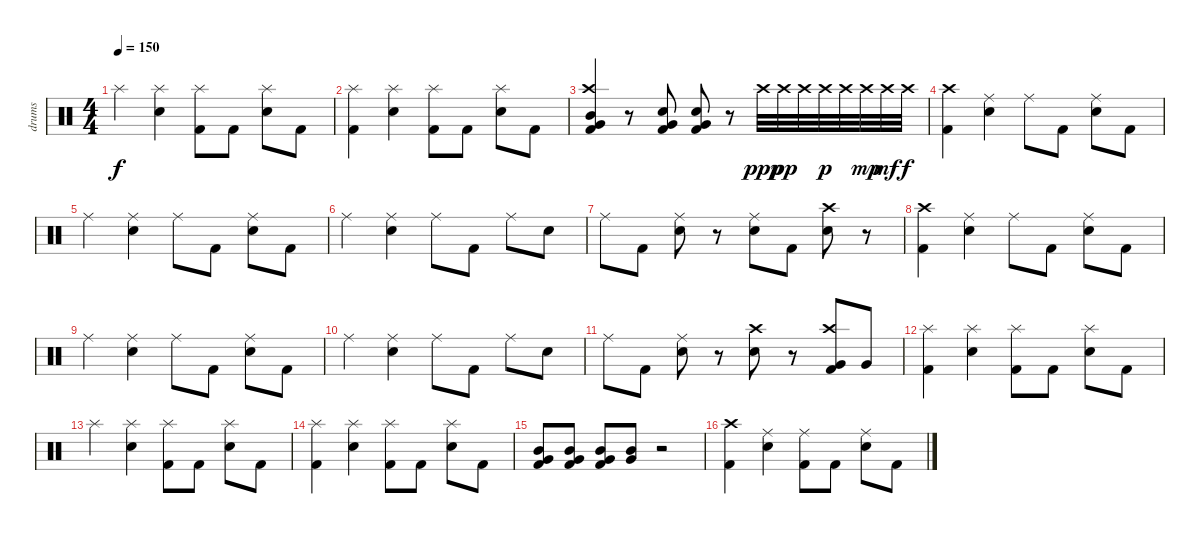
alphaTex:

\track ("drums" "drums") {instrument percussion}
\staff {score}
\articulation defaults
\ts (4 4)
\tempo 150
\clef neutral
\ks c "Splash (hit)".4{dy f}
("Splash (hit)" "Snare (hit) 2").4 ("Splash (hit)" "Kick (hit) 2").8 "Kick (hit) 2".8 ("Splash (hit)" "Snare (hit) 2").8 "Kick (hit) 2".8 |
("Splash (hit)" "Kick (hit) 2").4 ("Splash (hit)" "Snare (hit) 2").4 ("Splash (hit)" "Kick (hit) 2").8 "Kick (hit) 2".8 ("Splash (hit)" "Snare (hit) 2").8 "Kick (hit) 2".8 |
("Crash high (hit)" "Mid Tom (hit)" "Very Low Tom (hit)" "Kick (hit) 2").4 r.8 ("Very Low Tom (hit)" "Snare (hit) 2" "Kick (hit) 2").8 ("Very Low Tom (hit)" "Snare (hit) 2" "Kick (hit) 2").8 r.8 "Crash high (hit)".32{dy ppp} "Crash high (hit)".32{dy pp} "Crash high (hit)".32 "Crash high (hit)".32{dy p} "Crash high (hit)".32 "Crash high (hit)".32{dy mp} "Crash high (hit)".32{dy mf} "Crash high (hit)".32{dy f} |
("Crash high (hit)" "Kick (hit) 2").4 ("Ride (middle)" "Snare (hit) 2").4 "Ride (middle)".8 "Kick (hit) 2".8 ("Ride (middle)" "Snare (hit) 2").8 "Kick (hit) 2".8 |
"Ride (middle)".4 ("Ride (middle)" "Snare (hit) 2").4 "Ride (middle)".8 "Kick (hit) 2".8 ("Ride (middle)" "Snare (hit) 2").8 "Kick (hit) 2".8 |
"Ride (middle)".4 ("Ride (middle)" "Snare (hit) 2").4 "Ride (middle)".8 "Kick (hit) 2".8 "Ride (middle)".8 "Snare (hit) 2".8 |
"Ride (middle)".8 "Kick (hit) 2".8 ("Ride (middle)" "Snare (hit) 2").8 r.8 ("Ride (middle)" "Snare (hit) 2").8 "Kick (hit) 2".8 ("Crash high (hit)" "Snare (hit) 2").8 r.8 |
("Crash high (hit)" "Kick (hit) 2").4 ("Ride (middle)" "Snare (hit) 2").4 "Ride (middle)".8 "Kick (hit) 2".8 ("Ride (middle)" "Snare (hit) 2").8 "Kick (hit) 2".8 |
"Ride (middle)".4 ("Ride (middle)" "Snare (hit) 2").4 "Ride (middle)".8 "Kick (hit) 2".8 ("Ride (middle)" "Snare (hit) 2").8 "Kick (hit) 2".8 |
"Ride (middle)".4 ("Ride (middle)" "Snare (hit) 2").4 "Ride (middle)".8 "Kick (hit) 2".8 "Ride (middle)".8 "Snare (hit) 2".8 |
"Ride (middle)".8 "Kick (hit) 2".8 ("Ride (middle)" "Snare (hit) 2").8 r.8 ("Crash high (hit)" "Snare (hit) 2").8 r.8 ("Crash high (hit)" "Very Low Tom (hit)" "Kick (hit) 2").8 "Very Low Tom (hit)".8 |
("Splash (hit)" "Kick (hit) 2").4 ("Splash (hit)" "Snare (hit) 2").4 ("Splash (hit)" "Kick (hit) 2").8 "Kick (hit) 2".8 ("Splash (hit)" "Snare (hit) 2").8 "Kick (hit) 2".8 |
"Splash (hit)".4 ("Splash (hit)" "Snare (hit) 2").4 ("Splash (hit)" "Kick (hit) 2").8 "Kick (hit) 2".8 ("Splash (hit)" "Snare (hit) 2").8 "Kick (hit) 2".8 |
("Splash (hit)" "Kick (hit) 2").4 ("Splash (hit)" "Snare (hit) 2").4 ("Splash (hit)" "Kick (hit) 2").8 "Kick (hit) 2".8 ("Splash (hit)" "Snare (hit) 2").8 "Kick (hit) 2".8 |
("Mid Tom (hit)" "Very Low Tom (hit)" "Kick (hit) 2").8 ("Mid Tom (hit)" "Very Low Tom (hit)" "Kick (hit) 2").8 ("Mid Tom (hit)" "Very Low Tom (hit)" "Kick (hit) 2").8 ("Mid Tom (hit)" "Very Low Tom (hit)").8 r.2 |
("Crash high (hit)" "Kick (hit) 2").4 ("Ride (middle)" "Snare (hit) 2").4 ("Ride (middle)" "Kick (hit) 2").8 "Kick (hit) 2".8 ("Ride (middle)" "Snare (hit) 2").8 "Kick (hit) 2".8
